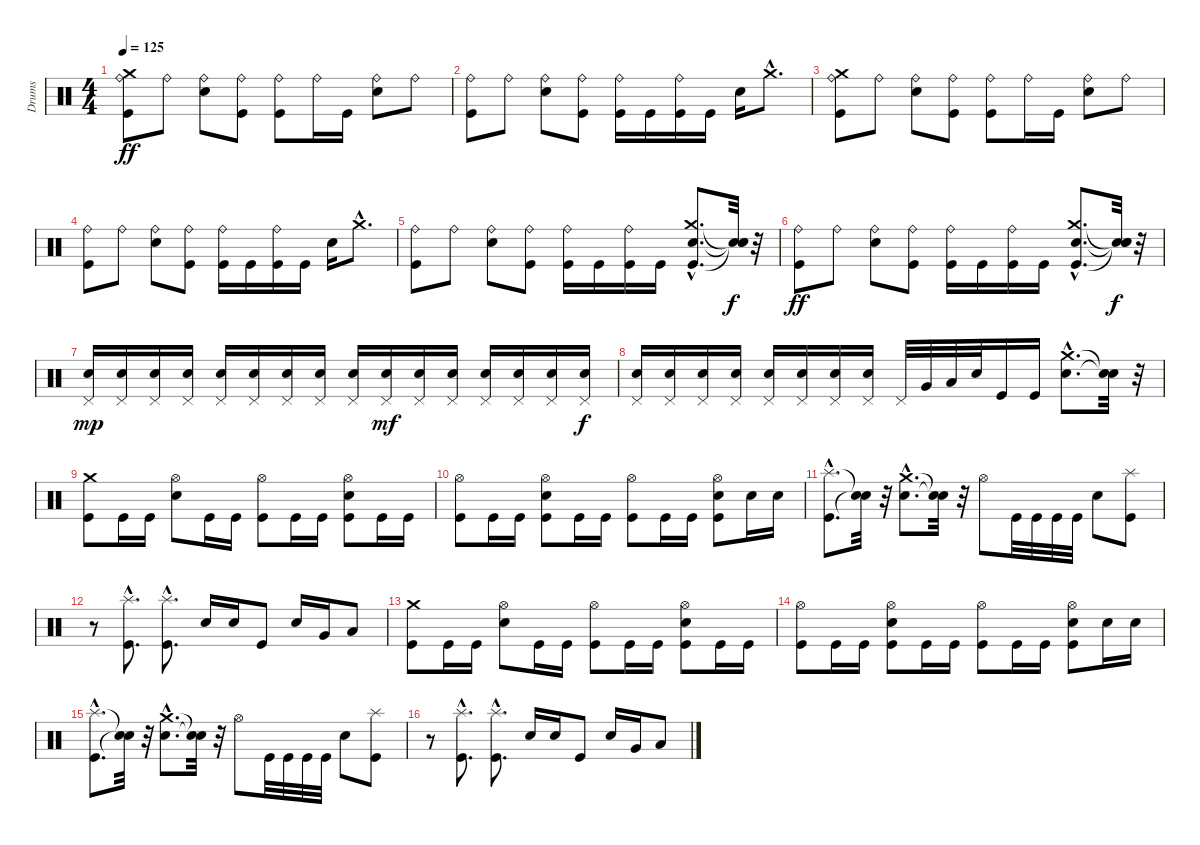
\track ("Drums" "Drums") {instrument percussion}
\staff {score}
\articulation defaults
\ts (4 4)
\tempo 125
\clef neutral
\ks c
("Kick (hit)" "Ride (bell)" "Crash medium (hit)").8{dy ff} "Ride (bell)".8 ("Electric Snare (hit)" "Ride (bell)").8 ("Kick (hit)" "Ride (bell)").8 ("Kick (hit)" "Ride (bell)").8 "Ride (bell)".16 "Kick (hit)".16 ("Electric Snare (hit)" "Ride (bell)").8 "Ride (bell)".8 |
("Kick (hit)" "Ride (bell)").8 "Ride (bell)".8 ("Electric Snare (hit)" "Ride (bell)").8 ("Kick (hit)" "Ride (bell)").8 ("Kick (hit)" "Ride (bell)").16 "Kick (hit)".16 ("Kick (hit)" "Ride (bell)").16 "Kick (hit)".16 "Electric Snare (hit)".16 "Crash medium (hit)"{hac}.8{d} |
("Kick (hit)" "Ride (bell)" "Crash medium (hit)").8 "Ride (bell)".8 ("Electric Snare (hit)" "Ride (bell)").8 ("Kick (hit)" "Ride (bell)").8 ("Kick (hit)" "Ride (bell)").8 "Ride (bell)".16 "Kick (hit)".16 ("Electric Snare (hit)" "Ride (bell)").8 "Ride (bell)".8 |
("Kick (hit)" "Ride (bell)").8 "Ride (bell)".8 ("Electric Snare (hit)" "Ride (bell)").8 ("Kick (hit)" "Ride (bell)").8 ("Kick (hit)" "Ride (bell)").16 "Kick (hit)".16 ("Kick (hit)" "Ride (bell)").16 "Kick (hit)".16 "Electric Snare (hit)".16 "Crash medium (hit)"{hac}.8{d} |
("Kick (hit)" "Ride (bell)").8 "Ride (bell)".8 ("Electric Snare (hit)" "Ride (bell)").8 ("Kick (hit)" "Ride (bell)").8 ("Kick (hit)" "Ride (bell)").16 "Kick (hit)".16 ("Kick (hit)" "Ride (bell)").16 "Kick (hit)".16 ("Kick (hit)"{hac} "Electric Snare (hit)"{hac} "Crash medium (hit)"{hac}).8{d} ("Snare (hit)"{t} "Snare (hit)"{t} "Snare (hit)"{t}).32{dy f} r.32 |
("Kick (hit)" "Ride (bell)").8{dy ff} "Ride (bell)".8 ("Electric Snare (hit)" "Ride (bell)").8 ("Kick (hit)" "Ride (bell)").8 ("Kick (hit)" "Ride (bell)").16 "Kick (hit)".16 ("Kick (hit)" "Ride (bell)").16 "Kick (hit)".16 ("Kick (hit)"{hac} "Electric Snare (hit)"{hac} "Crash medium (hit)"{hac}).8{d} ("Snare (hit)"{t} "Snare (hit)"{t} "Snare (hit)"{t}).32{dy f} r.32 |
("Electric Snare (hit)" "Pedal Hi-Hat (hit)").16{dy mp} ("Electric Snare (hit)" "Pedal Hi-Hat (hit)").16 ("Electric Snare (hit)" "Pedal Hi-Hat (hit)").16 ("Electric Snare (hit)" "Pedal Hi-Hat (hit)").16 ("Electric Snare (hit)" "Pedal Hi-Hat (hit)").16 ("Electric Snare (hit)" "Pedal Hi-Hat (hit)").16 ("Electric Snare (hit)" "Pedal Hi-Hat (hit)").16 ("Electric Snare (hit)" "Pedal Hi-Hat (hit)").16 ("Electric Snare (hit)" "Pedal Hi-Hat (hit)").16 ("Electric Snare (hit)" "Pedal Hi-Hat (hit)").16{dy mf} ("Electric Snare (hit)" "Pedal Hi-Hat (hit)").16 ("Electric Snare (hit)" "Pedal Hi-Hat (hit)").16 ("Electric Snare (hit)" "Pedal Hi-Hat (hit)").16 ("Electric Snare (hit)" "Pedal Hi-Hat (hit)").16 ("Electric Snare (hit)" "Pedal Hi-Hat (hit)").16 ("Electric Snare (hit)" "Pedal Hi-Hat (hit)").16{dy f} |
("Electric Snare (hit)" "Pedal Hi-Hat (hit)").16 ("Electric Snare (hit)" "Pedal Hi-Hat (hit)").16 ("Electric Snare (hit)" "Pedal Hi-Hat (hit)").16 ("Electric Snare (hit)" "Pedal Hi-Hat (hit)").16 ("Electric Snare (hit)" "Pedal Hi-Hat (hit)").16 ("Electric Snare (hit)" "Pedal Hi-Hat (hit)").16 ("Electric Snare (hit)" "Pedal Hi-Hat (hit)").16 ("Electric Snare (hit)" "Pedal Hi-Hat (hit)").16 "Pedal Hi-Hat (hit)".32 "Very Low Tom (hit)".32 "Low Floor Tom (hit)".32 "Electric Snare (hit)".32 "Kick (hit)".16 "Kick (hit)".16 ("Electric Snare (hit)"{hac} "Crash medium (hit)"{hac}).8{d} ("Snare (hit)"{t} "Snare (hit)"{t}).32 r.32 |
("Kick (hit)" "Crash medium (hit)").8 "Kick (hit)".16 "Kick (hit)".16 ("Electric Snare (hit)" "Hi-Hat (open)").8 "Kick (hit)".16 "Kick (hit)".16 ("Kick (hit)" "Hi-Hat (open)").8 "Kick (hit)".16 "Kick (hit)".16 ("Kick (hit)" "Electric Snare (hit)" "Hi-Hat (open)").8 "Kick (hit)".16 "Kick (hit)".16 |
("Kick (hit)" "Hi-Hat (open)").8 "Kick (hit)".16 "Kick (hit)".16 ("Kick (hit)" "Electric Snare (hit)" "Hi-Hat (open)").8 "Kick (hit)".16 "Kick (hit)".16 ("Kick (hit)" "Hi-Hat (open)").8 "Kick (hit)".16 "Kick (hit)".16 ("Kick (hit)" "Electric Snare (hit)" "Hi-Hat (open)").8 "Electric Snare (hit)".16 "Electric Snare (hit)".16 |
("Kick (hit)"{hac} "Splash (hit)"{hac}).8{d} ("Snare (hit)"{t} "Snare (hit)"{t}).32 r.32 ("Electric Snare (hit)"{hac} "Crash medium (hit)"{hac}).8{d} ("Snare (hit)"{t} "Snare (hit)"{t}).32 r.32 "Hi-Hat (open)".8 "Kick (hit)".32 "Kick (hit)".32 "Kick (hit)".32 "Kick (hit)".32 "Electric Snare (hit)".8 ("Kick (hit)" "Splash (hit)").8 |
r.8 ("Kick (hit)"{hac} "Splash (hit)"{hac}).8{d} ("Kick (hit)"{hac} "Splash (hit)"{hac}).8{d} "Electric Snare (hit)".16 "Electric Snare (hit)".16 "Kick (hit)".8 "Electric Snare (hit)".16 "Very Low Tom (hit)".16 "Low Floor Tom (hit)".8 |
("Kick (hit)" "Crash medium (hit)").8 "Kick (hit)".16 "Kick (hit)".16 ("Electric Snare (hit)" "Hi-Hat (open)").8 "Kick (hit)".16 "Kick (hit)".16 ("Kick (hit)" "Hi-Hat (open)").8 "Kick (hit)".16 "Kick (hit)".16 ("Kick (hit)" "Electric Snare (hit)" "Hi-Hat (open)").8 "Kick (hit)".16 "Kick (hit)".16 |
("Kick (hit)" "Hi-Hat (open)").8 "Kick (hit)".16 "Kick (hit)".16 ("Kick (hit)" "Electric Snare (hit)" "Hi-Hat (open)").8 "Kick (hit)".16 "Kick (hit)".16 ("Kick (hit)" "Hi-Hat (open)").8 "Kick (hit)".16 "Kick (hit)".16 ("Kick (hit)" "Electric Snare (hit)" "Hi-Hat (open)").8 "Electric Snare (hit)".16 "Electric Snare (hit)".16 |
("Kick (hit)"{hac} "Splash (hit)"{hac}).8{d} ("Snare (hit)"{t} "Snare (hit)"{t}).32 r.32 ("Electric Snare (hit)"{hac} "Crash medium (hit)"{hac}).8{d} ("Snare (hit)"{t} "Snare (hit)"{t}).32 r.32 "Hi-Hat (open)".8 "Kick (hit)".32 "Kick (hit)".32 "Kick (hit)".32 "Kick (hit)".32 "Electric Snare (hit)".8 ("Kick (hit)" "Splash (hit)").8 |
r.8 ("Kick (hit)"{hac} "Splash (hit)"{hac}).8{d} ("Kick (hit)"{hac} "Splash (hit)"{hac}).8{d} "Electric Snare (hit)".16 "Electric Snare (hit)".16 "Kick (hit)".8 "Electric Snare (hit)".16 "Very Low Tom (hit)".16 "Low Floor Tom (hit)".8
